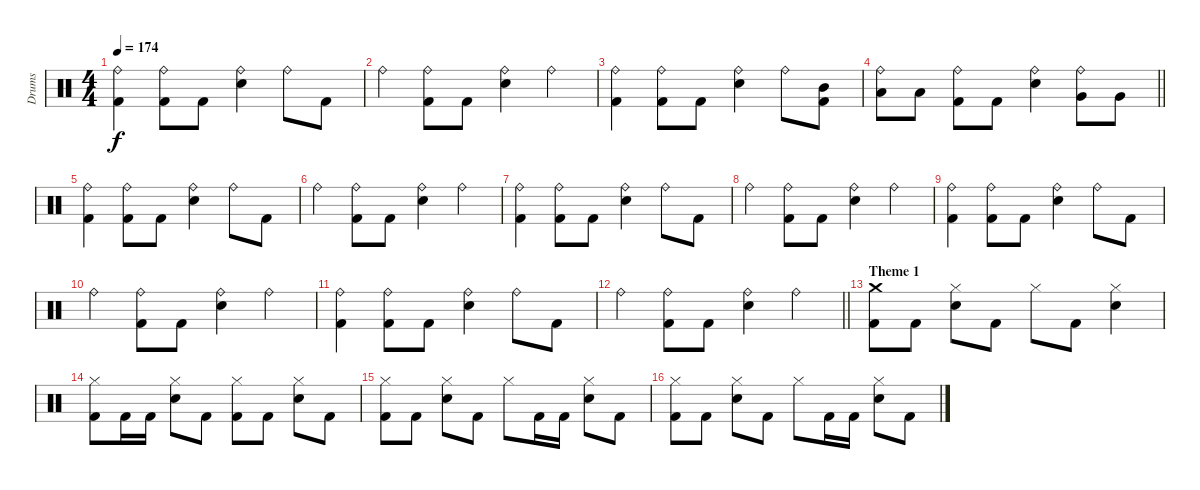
\track ("Drums" "Drums") {instrument percussion}
\staff {score}
\articulation defaults
\ts (4 4)
\tempo 174
\clef neutral
\ks c
("Ride (bell)" "Kick (hit) 2").4{dy f} ("Ride (bell)" "Kick (hit) 2").8 "Kick (hit) 2".8 ("Ride (bell)" "Snare (hit) 2").4 "Ride (bell)".8 "Kick (hit) 2".8 |
"Ride (bell)".4 ("Ride (bell)" "Kick (hit) 2").8 "Kick (hit) 2".8 ("Ride (bell)" "Snare (hit) 2").4 "Ride (bell)".4 |
("Ride (bell)" "Kick (hit) 2").4 ("Ride (bell)" "Kick (hit) 2").8 "Kick (hit) 2".8 ("Ride (bell)" "Snare (hit) 2").4 "Ride (bell)".8 ("Mid Tom (hit)" "Kick (hit) 2").8 |
\barLineRight lightlight
("Ride (bell)" "Low Tom (hit)").8 "Low Tom (hit)".8 ("Ride (bell)" "Kick (hit) 2").8 "Kick (hit) 2".8 ("Ride (bell)" "Snare (hit) 2").4 ("Ride (bell)" "Very Low Tom (hit)").8 "Very Low Tom (hit)".8 |
("Ride (bell)" "Kick (hit) 2").4 ("Ride (bell)" "Kick (hit) 2").8 "Kick (hit) 2".8 ("Ride (bell)" "Snare (hit) 2").4 "Ride (bell)".8 "Kick (hit) 2".8 |
"Ride (bell)".4 ("Ride (bell)" "Kick (hit) 2").8 "Kick (hit) 2".8 ("Ride (bell)" "Snare (hit) 2").4 "Ride (bell)".4 |
("Ride (bell)" "Kick (hit) 2").4 ("Ride (bell)" "Kick (hit) 2").8 "Kick (hit) 2".8 ("Ride (bell)" "Snare (hit) 2").4 "Ride (bell)".8 "Kick (hit) 2".8 |
"Ride (bell)".4 ("Ride (bell)" "Kick (hit) 2").8 "Kick (hit) 2".8 ("Ride (bell)" "Snare (hit) 2").4 "Ride (bell)".4 |
("Ride (bell)" "Kick (hit) 2").4 ("Ride (bell)" "Kick (hit) 2").8 "Kick (hit) 2".8 ("Ride (bell)" "Snare (hit) 2").4 "Ride (bell)".8 "Kick (hit) 2".8 |
"Ride (bell)".4 ("Ride (bell)" "Kick (hit) 2").8 "Kick (hit) 2".8 ("Ride (bell)" "Snare (hit) 2").4 "Ride (bell)".4 |
("Ride (bell)" "Kick (hit) 2").4 ("Ride (bell)" "Kick (hit) 2").8 "Kick (hit) 2".8 ("Ride (bell)" "Snare (hit) 2").4 "Ride (bell)".8 "Kick (hit) 2".8 |
\barLineRight lightlight "Ride (bell)".4
("Ride (bell)" "Kick (hit) 2").8 "Kick (hit) 2".8 ("Ride (bell)" "Snare (hit) 2").4 "Ride (bell)".4 |
\section ("" "Theme 1")
("Crash medium (hit)" "Kick (hit) 2").8 "Kick (hit) 2".8 ("Hi-Hat (closed)" "Snare (hit) 2").8 "Kick (hit) 2".8 "Hi-Hat (closed)".8 "Kick (hit) 2".8 ("Hi-Hat (closed)" "Snare (hit) 2").4 |
("Hi-Hat (closed)" "Kick (hit) 2").8 "Kick (hit) 2".16 "Kick (hit) 2".16 ("Hi-Hat (closed)" "Snare (hit) 2").8 "Kick (hit) 2".8 ("Hi-Hat (closed)" "Kick (hit) 2").8 "Kick (hit) 2".8 ("Hi-Hat (closed)" "Snare (hit) 2").8 "Kick (hit) 2".8 |
("Hi-Hat (closed)" "Kick (hit) 2").8 "Kick (hit) 2".8 ("Hi-Hat (closed)" "Snare (hit) 2").8 "Kick (hit) 2".8 "Hi-Hat (closed)".8 "Kick (hit) 2".16 "Kick (hit) 2".16 ("Hi-Hat (closed)" "Snare (hit) 2").8 "Kick (hit) 2".8 |
("Hi-Hat (closed)" "Kick (hit) 2").8 "Kick (hit) 2".8 ("Hi-Hat (closed)" "Snare (hit) 2").8 "Kick (hit) 2".8 "Hi-Hat (closed)".8 "Kick (hit) 2".16 "Kick (hit) 2".16 ("Hi-Hat (closed)" "Snare (hit) 2").8 "Kick (hit) 2".8
